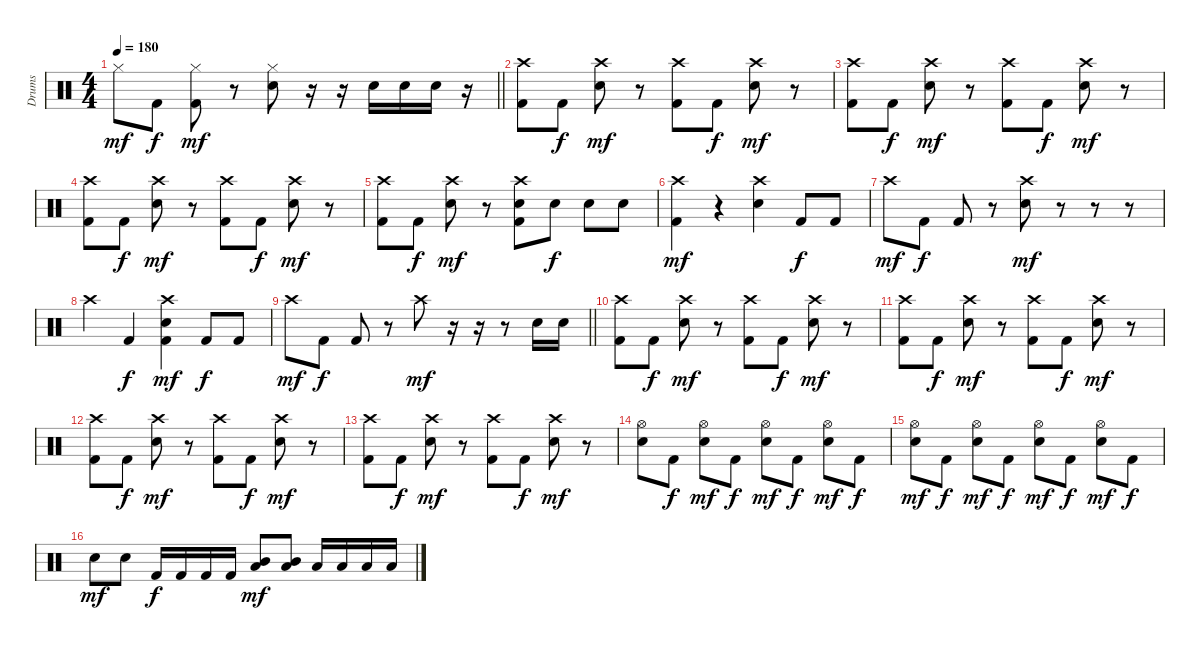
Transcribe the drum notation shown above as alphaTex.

\track ("Drums" "Drums") {instrument percussion}
\staff {score}
\articulation defaults
\ts (4 4)
\tempo 180
\clef neutral
\barLineRight lightlight
\ks c "Hi-Hat (closed)".8{dy mf} "Kick (hit) 2".8{dy f}
("Hi-Hat (closed)" "Kick (hit) 2").8{dy mf} r.8 ("Hi-Hat (closed)" "Electric Snare (hit)").8 r.16 r.16 "Electric Snare (hit)".16 "Electric Snare (hit)".16 "Electric Snare (hit)".16 r.16 |
("Crash high (hit)" "Kick (hit) 2").8 "Kick (hit) 2".8{dy f} ("Crash high (hit)" "Electric Snare (hit)").8{dy mf} r.8 ("Crash high (hit)" "Kick (hit) 2").8 "Kick (hit) 2".8{dy f} ("Crash high (hit)" "Electric Snare (hit)").8{dy mf} r.8 |
("Crash high (hit)" "Kick (hit) 2").8 "Kick (hit) 2".8{dy f} ("Crash high (hit)" "Electric Snare (hit)").8{dy mf} r.8 ("Crash high (hit)" "Kick (hit) 2").8 "Kick (hit) 2".8{dy f} ("Crash high (hit)" "Electric Snare (hit)").8{dy mf} r.8 |
("Crash high (hit)" "Kick (hit) 2").8 "Kick (hit) 2".8{dy f} ("Crash high (hit)" "Electric Snare (hit)").8{dy mf} r.8 ("Crash high (hit)" "Kick (hit) 2").8 "Kick (hit) 2".8{dy f} ("Crash high (hit)" "Electric Snare (hit)").8{dy mf} r.8 |
("Crash high (hit)" "Kick (hit) 2").8 "Kick (hit) 2".8{dy f} ("Crash high (hit)" "Electric Snare (hit)").8{dy mf} r.8 ("Crash high (hit)" "Electric Snare (hit)" "Kick (hit) 2").8 "Electric Snare (hit)".8{dy f} "Electric Snare (hit)".8 "Electric Snare (hit)".8 |
("Crash high (hit)" "Kick (hit) 2").4{dy mf} r.4 ("Crash high (hit)" "Electric Snare (hit)").4 "Kick (hit) 2".8{dy f} "Kick (hit) 2".8 |
"Crash high (hit)".8{dy mf} "Kick (hit) 2".8{dy f} "Kick (hit) 2".8 r.8 ("Crash high (hit)" "Electric Snare (hit)").8{dy mf} r.8 r.8 r.8 |
"Crash high (hit)".4 "Kick (hit) 2".4{dy f} ("Crash high (hit)" "Electric Snare (hit)" "Kick (hit) 2").4{dy mf} "Kick (hit) 2".8{dy f} "Kick (hit) 2".8 |
\barLineRight lightlight "Crash high (hit)".8{dy mf} "Kick (hit) 2".8{dy f} "Kick (hit) 2".8
r.8 "Crash high (hit)".8{dy mf} r.16 r.16 r.8 "Electric Snare (hit)".16 "Electric Snare (hit)".16 |
("Crash high (hit)" "Kick (hit) 2").8 "Kick (hit) 2".8{dy f} ("Crash high (hit)" "Electric Snare (hit)").8{dy mf} r.8 ("Crash high (hit)" "Kick (hit) 2").8 "Kick (hit) 2".8{dy f} ("Crash high (hit)" "Electric Snare (hit)").8{dy mf} r.8 |
("Crash high (hit)" "Kick (hit) 2").8 "Kick (hit) 2".8{dy f} ("Crash high (hit)" "Electric Snare (hit)").8{dy mf} r.8 ("Crash high (hit)" "Kick (hit) 2").8 "Kick (hit) 2".8{dy f} ("Crash high (hit)" "Electric Snare (hit)").8{dy mf} r.8 |
("Crash high (hit)" "Kick (hit) 2").8 "Kick (hit) 2".8{dy f} ("Crash high (hit)" "Electric Snare (hit)").8{dy mf} r.8 ("Crash high (hit)" "Kick (hit) 2").8 "Kick (hit) 2".8{dy f} ("Crash high (hit)" "Electric Snare (hit)").8{dy mf} r.8 |
("Crash high (hit)" "Kick (hit) 2").8 "Kick (hit) 2".8{dy f} ("Crash high (hit)" "Electric Snare (hit)").8{dy mf} r.8 ("Crash high (hit)" "Kick (hit) 2").8 "Kick (hit) 2".8{dy f} ("Crash high (hit)" "Electric Snare (hit)").8{dy mf} r.8 |
("Hi-Hat (open)" "Electric Snare (hit)").8 "Kick (hit) 2".8{dy f} ("Hi-Hat (open)" "Electric Snare (hit)").8{dy mf} "Kick (hit) 2".8{dy f} ("Hi-Hat (open)" "Electric Snare (hit)").8{dy mf} "Kick (hit) 2".8{dy f} ("Hi-Hat (open)" "Electric Snare (hit)").8{dy mf} "Kick (hit) 2".8{dy f} |
("Hi-Hat (open)" "Electric Snare (hit)").8{dy mf} "Kick (hit) 2".8{dy f} ("Hi-Hat (open)" "Electric Snare (hit)").8{dy mf} "Kick (hit) 2".8{dy f} ("Hi-Hat (open)" "Electric Snare (hit)").8{dy mf} "Kick (hit) 2".8{dy f} ("Hi-Hat (open)" "Electric Snare (hit)").8{dy mf} "Kick (hit) 2".8{dy f} |
"Electric Snare (hit)".8{dy mf} "Electric Snare (hit)".8 "Kick (hit) 2".16{dy f} "Kick (hit) 2".16 "Kick (hit) 2".16 "Kick (hit) 2".16 ("Low Tom (hit)" "Mid Tom (hit)").8{dy mf} ("Low Tom (hit)" "Mid Tom (hit)").8 "Low Tom (hit)".16 "Low Tom (hit)".16 "Low Tom (hit)".16 "Low Tom (hit)".16
